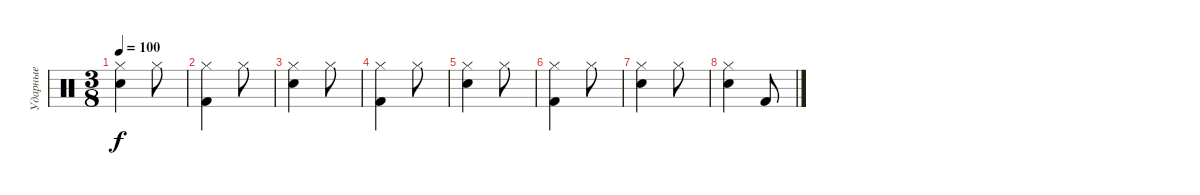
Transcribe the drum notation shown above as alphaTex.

\track ("Ударные" "Ударные") {instrument percussion}
\staff {score}
\articulation defaults
\ts (3 8)
\tempo 100
\clef neutral
\ks c
("Hi-Hat (closed)" "Snare (hit) 2").4{dy f} "Hi-Hat (closed)".8 |
("Hi-Hat (closed)" "Kick (hit) 2").4 "Hi-Hat (closed)".8 |
("Hi-Hat (closed)" "Snare (hit) 2").4 "Hi-Hat (closed)".8 |
("Hi-Hat (closed)" "Kick (hit) 2").4 "Hi-Hat (closed)".8 |
("Hi-Hat (closed)" "Snare (hit) 2").4 "Hi-Hat (closed)".8 |
("Hi-Hat (closed)" "Kick (hit) 2").4 "Hi-Hat (closed)".8 |
("Hi-Hat (closed)" "Snare (hit) 2").4 "Hi-Hat (closed)".8 |
("Hi-Hat (closed)" "Snare (hit) 2").4 "Kick (hit) 2".8
